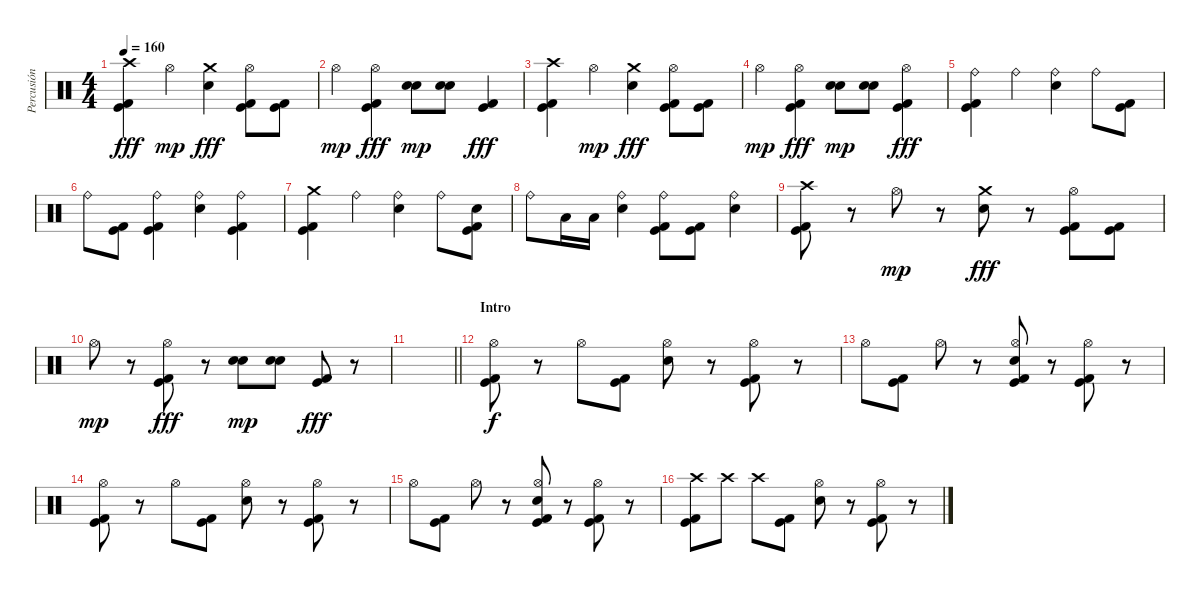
\track ("Percusión" "Percusión") {instrument percussion}
\staff {score}
\articulation defaults
\ts (4 4)
\tempo 160
\clef neutral
\ks c
("Crash high (hit)" "Kick (hit)" "Kick (hit) 2").4{dy fff} "Hi-Hat (open)".4{dy mp} ("Crash medium (hit)" "Electric Snare (hit)").4{dy fff} ("Hi-Hat (open)" "Kick (hit)" "Kick (hit) 2").8 ("Kick (hit)" "Kick (hit) 2").8 |
"Hi-Hat (open)".4{dy mp} ("Hi-Hat (open)" "Kick (hit)" "Kick (hit) 2").4{dy fff} ("Electric Snare (hit)" "Electric Snare (hit)").8{dy mp} ("Electric Snare (hit)" "Electric Snare (hit)").8 ("Kick (hit)" "Kick (hit) 2").4{dy fff} |
("Crash high (hit)" "Kick (hit)" "Kick (hit) 2").4 "Hi-Hat (open)".4{dy mp} ("Crash medium (hit)" "Electric Snare (hit)").4{dy fff} ("Hi-Hat (open)" "Kick (hit)" "Kick (hit) 2").8 ("Kick (hit)" "Kick (hit) 2").8 |
"Hi-Hat (open)".4{dy mp} ("Hi-Hat (open)" "Kick (hit)" "Kick (hit) 2").4{dy fff} ("Electric Snare (hit)" "Electric Snare (hit)").8{dy mp} ("Electric Snare (hit)" "Electric Snare (hit)").8 ("Hi-Hat (open)" "Kick (hit)" "Kick (hit) 2").4{dy fff} |
("Ride (bell)" "Kick (hit)" "Kick (hit) 2").4 "Ride (bell)".4 ("Ride (bell)" "Electric Snare (hit)").4 "Ride (bell)".8 ("Kick (hit)" "Kick (hit) 2").8 |
"Ride (bell)".8 ("Kick (hit)" "Kick (hit) 2").8 ("Ride (bell)" "Kick (hit)" "Kick (hit) 2").4 ("Ride (bell)" "Electric Snare (hit)").4 ("Ride (bell)" "Kick (hit)" "Kick (hit) 2").4 |
("Crash medium (hit)" "Kick (hit)" "Kick (hit) 2").4 "Ride (bell)".4 ("Ride (bell)" "Electric Snare (hit)").4 "Ride (bell)".8 ("Electric Snare (hit)" "Kick (hit)" "Kick (hit) 2").8 |
"Ride (bell)".8 "Low Tom (hit)".16 "Low Tom (hit)".16 ("Ride (bell)" "Electric Snare (hit)").4 ("Ride (bell)" "Kick (hit)" "Kick (hit) 2").8 ("Kick (hit)" "Kick (hit) 2").8 ("Ride (bell)" "Electric Snare (hit)").4 |
("Crash high (hit)" "Kick (hit)" "Kick (hit) 2").8 r.8 "Hi-Hat (open)".8{dy mp} r.8 ("Crash medium (hit)" "Electric Snare (hit)").8{dy fff} r.8 ("Hi-Hat (open)" "Kick (hit)" "Kick (hit) 2").8 ("Kick (hit)" "Kick (hit) 2").8 |
"Hi-Hat (open)".8{dy mp} r.8 ("Hi-Hat (open)" "Kick (hit)" "Kick (hit) 2").8{dy fff} r.8 ("Electric Snare (hit)" "Electric Snare (hit)").8{dy mp} ("Electric Snare (hit)" "Electric Snare (hit)").8 ("Kick (hit)" "Kick (hit) 2").8{dy fff} r.8 |
\barLineRight lightlight
|
\section ("" "Intro")
("Hi-Hat (open)" "Kick (hit)" "Kick (hit) 2").8{dy f} r.8 "Hi-Hat (open)".8 ("Kick (hit)" "Kick (hit) 2").8 ("Hi-Hat (open)" "Electric Snare (hit)").8 r.8 ("Hi-Hat (open)" "Kick (hit)" "Kick (hit) 2").8 r.8 |
"Hi-Hat (open)".8 ("Kick (hit)" "Kick (hit) 2").8 "Hi-Hat (open)".8 r.8 ("Hi-Hat (open)" "Electric Snare (hit)" "Kick (hit)" "Kick (hit) 2").8 r.8 ("Hi-Hat (open)" "Kick (hit)" "Kick (hit) 2").8 r.8 |
("Hi-Hat (open)" "Kick (hit)" "Kick (hit) 2").8 r.8 "Hi-Hat (open)".8 ("Kick (hit)" "Kick (hit) 2").8 ("Hi-Hat (open)" "Electric Snare (hit)").8 r.8 ("Hi-Hat (open)" "Kick (hit)" "Kick (hit) 2").8 r.8 |
"Hi-Hat (open)".8 ("Kick (hit)" "Kick (hit) 2").8 "Hi-Hat (open)".8 r.8 ("Hi-Hat (open)" "Electric Snare (hit)" "Kick (hit)" "Kick (hit) 2").8 r.8 ("Hi-Hat (open)" "Kick (hit)" "Kick (hit) 2").8 r.8 |
("Crash high (hit)" "Kick (hit)" "Kick (hit) 2").8 "Crash high (hit)".8 "Crash high (hit)".8 ("Kick (hit)" "Kick (hit) 2").8 ("Hi-Hat (open)" "Electric Snare (hit)").8 r.8 ("Hi-Hat (open)" "Kick (hit)" "Kick (hit) 2").8 r.8
